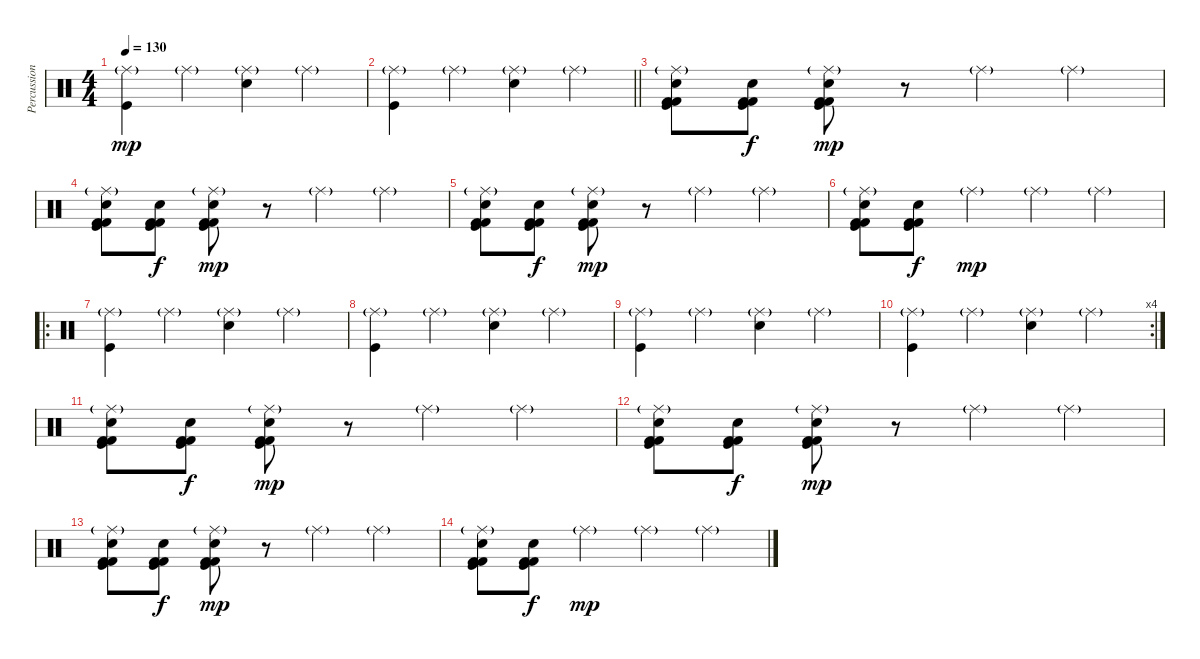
\track ("Percussions" "Percussion") {instrument percussion}
\staff {score}
\articulation defaults
\ts (4 4)
\tempo 130
\clef neutral
\ks c
("Ride (middle)"{g} "Kick (hit)").4{dy mp} "Ride (middle)"{g}.4 ("Ride (middle)"{g} "Electric Snare (hit)").4 "Ride (middle)"{g}.4 |
\barLineRight lightlight
("Ride (middle)"{g} "Kick (hit)").4 "Ride (middle)"{g}.4 ("Ride (middle)"{g} "Electric Snare (hit)").4 "Ride (middle)"{g}.4 |
("Ride (middle)"{g} "Kick (hit)" "Kick (hit) 2" "Electric Snare (hit)" "Kick (hit) 2").8 ("Kick (hit)" "Kick (hit) 2" "Electric Snare (hit)" "Kick (hit) 2").8{dy f} ("Ride (middle)"{g} "Kick (hit)" "Kick (hit) 2" "Electric Snare (hit)" "Kick (hit) 2").8{dy mp} r.8 "Ride (middle)"{g}.4 "Ride (middle)"{g}.4 |
("Ride (middle)"{g} "Kick (hit)" "Kick (hit) 2" "Electric Snare (hit)" "Kick (hit) 2").8 ("Kick (hit)" "Kick (hit) 2" "Electric Snare (hit)" "Kick (hit) 2").8{dy f} ("Ride (middle)"{g} "Kick (hit)" "Kick (hit) 2" "Electric Snare (hit)" "Kick (hit) 2").8{dy mp} r.8 "Ride (middle)"{g}.4 "Ride (middle)"{g}.4 |
("Ride (middle)"{g} "Kick (hit)" "Kick (hit) 2" "Electric Snare (hit)" "Kick (hit) 2").8 ("Kick (hit)" "Kick (hit) 2" "Electric Snare (hit)" "Kick (hit) 2").8{dy f} ("Ride (middle)"{g} "Kick (hit)" "Kick (hit) 2" "Electric Snare (hit)" "Kick (hit) 2").8{dy mp} r.8 "Ride (middle)"{g}.4 "Ride (middle)"{g}.4 |
("Ride (middle)"{g} "Kick (hit)" "Kick (hit) 2" "Electric Snare (hit)" "Kick (hit) 2").8 ("Kick (hit)" "Kick (hit) 2" "Electric Snare (hit)" "Kick (hit) 2").8{dy f} "Ride (middle)"{g}.4{dy mp} "Ride (middle)"{g}.4 "Ride (middle)"{g}.4 |
\ro
("Ride (middle)"{g} "Kick (hit)").4 "Ride (middle)"{g}.4 ("Ride (middle)"{g} "Electric Snare (hit)").4 "Ride (middle)"{g}.4 |
("Ride (middle)"{g} "Kick (hit)").4 "Ride (middle)"{g}.4 ("Ride (middle)"{g} "Electric Snare (hit)").4 "Ride (middle)"{g}.4 |
("Ride (middle)"{g} "Kick (hit)").4 "Ride (middle)"{g}.4 ("Ride (middle)"{g} "Electric Snare (hit)").4 "Ride (middle)"{g}.4 |
\rc 4
("Ride (middle)"{g} "Kick (hit)").4 "Ride (middle)"{g}.4 ("Ride (middle)"{g} "Electric Snare (hit)").4 "Ride (middle)"{g}.4 |
("Ride (middle)"{g} "Kick (hit)" "Kick (hit) 2" "Electric Snare (hit)" "Kick (hit) 2").8 ("Kick (hit)" "Kick (hit) 2" "Electric Snare (hit)" "Kick (hit) 2").8{dy f} ("Ride (middle)"{g} "Kick (hit)" "Kick (hit) 2" "Electric Snare (hit)" "Kick (hit) 2").8{dy mp} r.8 "Ride (middle)"{g}.4 "Ride (middle)"{g}.4 |
("Ride (middle)"{g} "Kick (hit)" "Kick (hit) 2" "Electric Snare (hit)" "Kick (hit) 2").8 ("Kick (hit)" "Kick (hit) 2" "Electric Snare (hit)" "Kick (hit) 2").8{dy f} ("Ride (middle)"{g} "Kick (hit)" "Kick (hit) 2" "Electric Snare (hit)" "Kick (hit) 2").8{dy mp} r.8 "Ride (middle)"{g}.4 "Ride (middle)"{g}.4 |
("Ride (middle)"{g} "Kick (hit)" "Kick (hit) 2" "Electric Snare (hit)" "Kick (hit) 2").8 ("Kick (hit)" "Kick (hit) 2" "Electric Snare (hit)" "Kick (hit) 2").8{dy f} ("Ride (middle)"{g} "Kick (hit)" "Kick (hit) 2" "Electric Snare (hit)" "Kick (hit) 2").8{dy mp} r.8 "Ride (middle)"{g}.4 "Ride (middle)"{g}.4 |
("Ride (middle)"{g} "Kick (hit)" "Kick (hit) 2" "Electric Snare (hit)" "Kick (hit) 2").8 ("Kick (hit)" "Kick (hit) 2" "Electric Snare (hit)" "Kick (hit) 2").8{dy f} "Ride (middle)"{g}.4{dy mp} "Ride (middle)"{g}.4 "Ride (middle)"{g}.4
